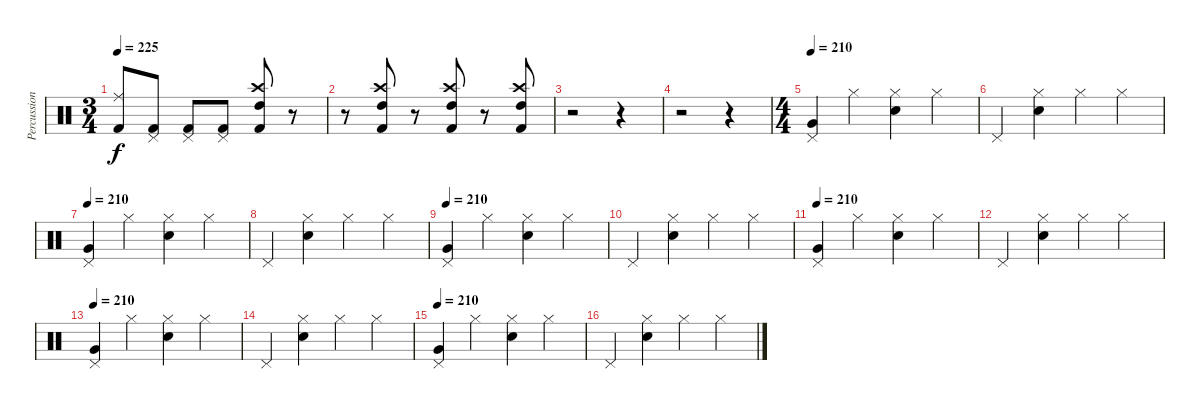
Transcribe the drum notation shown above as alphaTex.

\track ("Percussion" "Percussion") {instrument percussion}
\staff {score}
\articulation defaults
\ts (3 4)
\tempo 225
\clef neutral
\ks c
("Ride (middle)" "Kick (hit) 2").8{dy f} ("Pedal Hi-Hat (hit)" "Kick (hit) 2").8 ("Pedal Hi-Hat (hit)" "Kick (hit) 2").8 ("Pedal Hi-Hat (hit)" "Kick (hit) 2").8 ("Crash high (hit)" "High Tom (hit)" "Kick (hit) 2").8 r.8 |
r.8 ("Crash high (hit)" "High Tom (hit)" "Kick (hit) 2").8 r.8 ("Crash high (hit)" "High Tom (hit)" "Kick (hit) 2").8 r.8 ("Crash high (hit)" "High Tom (hit)" "Kick (hit) 2").8 |
r.2 r.4 |
r.2 r.4 |
\ts (4 4)
\tempo 210
("Pedal Hi-Hat (hit)" "Very Low Tom (hit)").4{volume 11} "Hi-Hat (closed)".4 ("Hi-Hat (closed)" "Snare (hit) 2").4 "Hi-Hat (closed)".4 |
"Pedal Hi-Hat (hit)".4 ("Hi-Hat (closed)" "Snare (hit) 2").4 "Hi-Hat (closed)".4 "Hi-Hat (closed)".4 |
\tempo 210
("Pedal Hi-Hat (hit)" "Very Low Tom (hit)").4 "Hi-Hat (closed)".4 ("Hi-Hat (closed)" "Snare (hit) 2").4 "Hi-Hat (closed)".4 |
"Pedal Hi-Hat (hit)".4 ("Hi-Hat (closed)" "Snare (hit) 2").4 "Hi-Hat (closed)".4 "Hi-Hat (closed)".4 |
\tempo 210
("Pedal Hi-Hat (hit)" "Very Low Tom (hit)").4{volume 11} "Hi-Hat (closed)".4 ("Hi-Hat (closed)" "Snare (hit) 2").4 "Hi-Hat (closed)".4 |
"Pedal Hi-Hat (hit)".4 ("Hi-Hat (closed)" "Snare (hit) 2").4 "Hi-Hat (closed)".4 "Hi-Hat (closed)".4 |
\tempo 210
("Pedal Hi-Hat (hit)" "Very Low Tom (hit)").4 "Hi-Hat (closed)".4 ("Hi-Hat (closed)" "Snare (hit) 2").4 "Hi-Hat (closed)".4 |
"Pedal Hi-Hat (hit)".4 ("Hi-Hat (closed)" "Snare (hit) 2").4 "Hi-Hat (closed)".4 "Hi-Hat (closed)".4 |
\tempo 210
("Pedal Hi-Hat (hit)" "Very Low Tom (hit)").4{volume 11} "Hi-Hat (closed)".4 ("Hi-Hat (closed)" "Snare (hit) 2").4 "Hi-Hat (closed)".4 |
"Pedal Hi-Hat (hit)".4 ("Hi-Hat (closed)" "Snare (hit) 2").4 "Hi-Hat (closed)".4 "Hi-Hat (closed)".4 |
\tempo 210
("Pedal Hi-Hat (hit)" "Very Low Tom (hit)").4 "Hi-Hat (closed)".4 ("Hi-Hat (closed)" "Snare (hit) 2").4 "Hi-Hat (closed)".4 |
"Pedal Hi-Hat (hit)".4 ("Hi-Hat (closed)" "Snare (hit) 2").4 "Hi-Hat (closed)".4 "Hi-Hat (closed)".4
